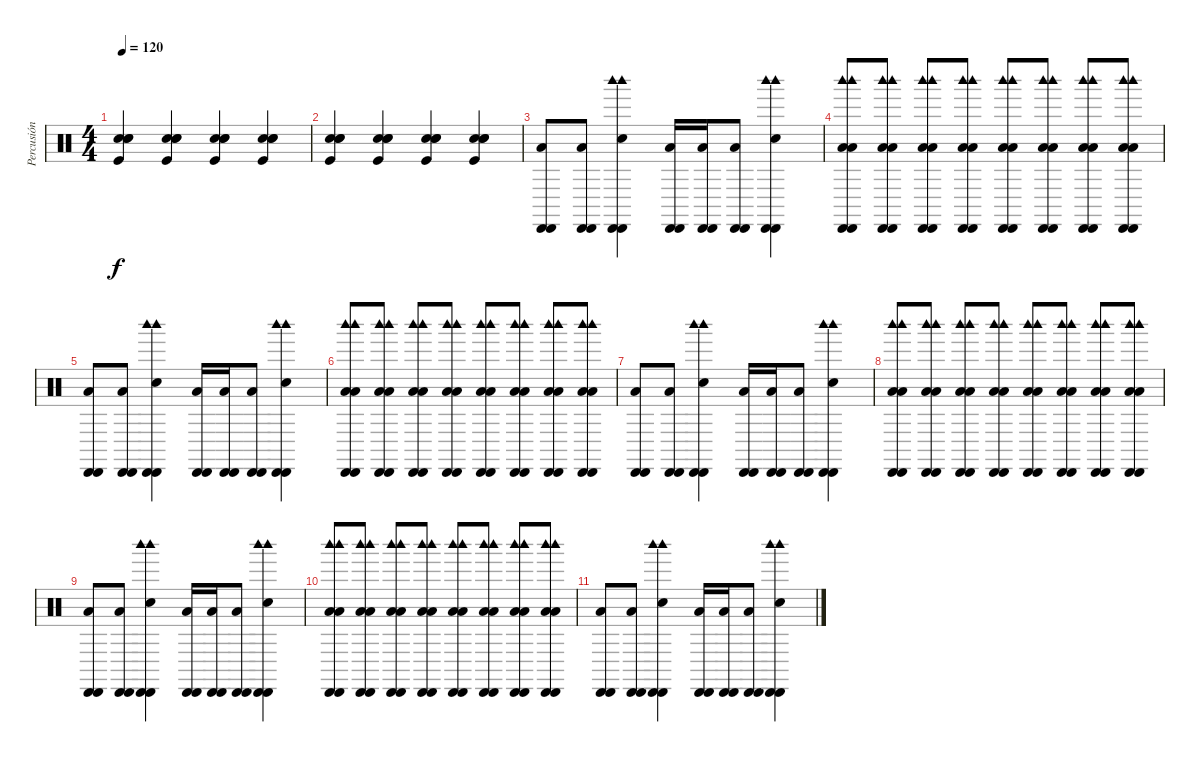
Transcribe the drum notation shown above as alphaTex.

\track ("Percusión" "Percusión") {instrument percussion}
\staff {score}
\articulation defaults
\ts (4 4)
\tempo 120
\clef neutral
\ks c
("Snare (hit) 2" "Snare (hit) 2" "Snare (hit) 2" "Kick (hit)").4{dy f} ("Snare (hit) 2" "Snare (hit) 2" "Snare (hit) 2" "Kick (hit)").4 ("Snare (hit) 2" "Snare (hit) 2" "Snare (hit) 2" "Kick (hit)").4 ("Snare (hit) 2" "Snare (hit) 2" "Snare (hit) 2" "Kick (hit)").4 |
("Snare (hit) 2" "Snare (hit) 2" "Snare (hit) 2" "Kick (hit)").4 ("Snare (hit) 2" "Snare (hit) 2" "Snare (hit) 2" "Kick (hit)").4 ("Snare (hit) 2" "Snare (hit) 2" "Snare (hit) 2" "Kick (hit)").4 ("Snare (hit) 2" "Snare (hit) 2" "Snare (hit) 2" "Kick (hit)").4 |
("Cabasa (hit)" "Cabasa (hit)" "Low Tom (hit)").8 ("Cabasa (hit)" "Cabasa (hit)" "Low Tom (hit)").8 ("Cabasa (hit)" "Cabasa (hit)" "Woodblock high (hit)" "Woodblock high (hit)" "Snare (hit) 2").4 ("Cabasa (hit)" "Cabasa (hit)" "Low Tom (hit)").16 ("Cabasa (hit)" "Cabasa (hit)" "Low Tom (hit)").16 ("Cabasa (hit)" "Cabasa (hit)" "Low Tom (hit)").8 ("Cabasa (hit)" "Cabasa (hit)" "Woodblock high (hit)" "Woodblock high (hit)" "Snare (hit) 2").4 |
("Cabasa (hit)" "Cabasa (hit)" "Woodblock high (hit)" "Woodblock high (hit)" "Low Tom (hit)" "Low Tom (hit)").8 ("Cabasa (hit)" "Cabasa (hit)" "Woodblock high (hit)" "Woodblock high (hit)" "Low Tom (hit)" "Low Tom (hit)").8 ("Cabasa (hit)" "Cabasa (hit)" "Woodblock high (hit)" "Woodblock high (hit)" "Low Tom (hit)" "Low Tom (hit)").8 ("Cabasa (hit)" "Cabasa (hit)" "Woodblock high (hit)" "Woodblock high (hit)" "Low Tom (hit)" "Low Tom (hit)").8 ("Cabasa (hit)" "Cabasa (hit)" "Woodblock high (hit)" "Woodblock high (hit)" "Low Tom (hit)" "Low Tom (hit)").8 ("Cabasa (hit)" "Cabasa (hit)" "Woodblock high (hit)" "Woodblock high (hit)" "Low Tom (hit)" "Low Tom (hit)").8 ("Cabasa (hit)" "Cabasa (hit)" "Woodblock high (hit)" "Woodblock high (hit)" "Low Tom (hit)" "Low Tom (hit)").8 ("Cabasa (hit)" "Cabasa (hit)" "Woodblock high (hit)" "Woodblock high (hit)" "Low Tom (hit)" "Low Tom (hit)").8 |
("Cabasa (hit)" "Cabasa (hit)" "Low Tom (hit)").8 ("Cabasa (hit)" "Cabasa (hit)" "Low Tom (hit)").8 ("Cabasa (hit)" "Cabasa (hit)" "Woodblock high (hit)" "Woodblock high (hit)" "Snare (hit) 2").4 ("Cabasa (hit)" "Cabasa (hit)" "Low Tom (hit)").16 ("Cabasa (hit)" "Cabasa (hit)" "Low Tom (hit)").16 ("Cabasa (hit)" "Cabasa (hit)" "Low Tom (hit)").8 ("Cabasa (hit)" "Cabasa (hit)" "Woodblock high (hit)" "Woodblock high (hit)" "Snare (hit) 2").4 |
("Cabasa (hit)" "Cabasa (hit)" "Woodblock high (hit)" "Woodblock high (hit)" "Low Tom (hit)" "Low Tom (hit)").8 ("Cabasa (hit)" "Cabasa (hit)" "Woodblock high (hit)" "Woodblock high (hit)" "Low Tom (hit)" "Low Tom (hit)").8 ("Cabasa (hit)" "Cabasa (hit)" "Woodblock high (hit)" "Woodblock high (hit)" "Low Tom (hit)" "Low Tom (hit)").8 ("Cabasa (hit)" "Cabasa (hit)" "Woodblock high (hit)" "Woodblock high (hit)" "Low Tom (hit)" "Low Tom (hit)").8 ("Cabasa (hit)" "Cabasa (hit)" "Woodblock high (hit)" "Woodblock high (hit)" "Low Tom (hit)" "Low Tom (hit)").8 ("Cabasa (hit)" "Cabasa (hit)" "Woodblock high (hit)" "Woodblock high (hit)" "Low Tom (hit)" "Low Tom (hit)").8 ("Cabasa (hit)" "Cabasa (hit)" "Woodblock high (hit)" "Woodblock high (hit)" "Low Tom (hit)" "Low Tom (hit)").8 ("Cabasa (hit)" "Cabasa (hit)" "Woodblock high (hit)" "Woodblock high (hit)" "Low Tom (hit)" "Low Tom (hit)").8 |
("Cabasa (hit)" "Cabasa (hit)" "Low Tom (hit)").8 ("Cabasa (hit)" "Cabasa (hit)" "Low Tom (hit)").8 ("Cabasa (hit)" "Cabasa (hit)" "Woodblock high (hit)" "Woodblock high (hit)" "Snare (hit) 2").4 ("Cabasa (hit)" "Cabasa (hit)" "Low Tom (hit)").16 ("Cabasa (hit)" "Cabasa (hit)" "Low Tom (hit)").16 ("Cabasa (hit)" "Cabasa (hit)" "Low Tom (hit)").8 ("Cabasa (hit)" "Cabasa (hit)" "Woodblock high (hit)" "Woodblock high (hit)" "Snare (hit) 2").4 |
("Cabasa (hit)" "Cabasa (hit)" "Woodblock high (hit)" "Woodblock high (hit)" "Low Tom (hit)" "Low Tom (hit)").8 ("Cabasa (hit)" "Cabasa (hit)" "Woodblock high (hit)" "Woodblock high (hit)" "Low Tom (hit)" "Low Tom (hit)").8 ("Cabasa (hit)" "Cabasa (hit)" "Woodblock high (hit)" "Woodblock high (hit)" "Low Tom (hit)" "Low Tom (hit)").8 ("Cabasa (hit)" "Cabasa (hit)" "Woodblock high (hit)" "Woodblock high (hit)" "Low Tom (hit)" "Low Tom (hit)").8 ("Cabasa (hit)" "Cabasa (hit)" "Woodblock high (hit)" "Woodblock high (hit)" "Low Tom (hit)" "Low Tom (hit)").8 ("Cabasa (hit)" "Cabasa (hit)" "Woodblock high (hit)" "Woodblock high (hit)" "Low Tom (hit)" "Low Tom (hit)").8 ("Cabasa (hit)" "Cabasa (hit)" "Woodblock high (hit)" "Woodblock high (hit)" "Low Tom (hit)" "Low Tom (hit)").8 ("Cabasa (hit)" "Cabasa (hit)" "Woodblock high (hit)" "Woodblock high (hit)" "Low Tom (hit)" "Low Tom (hit)").8 |
("Cabasa (hit)" "Cabasa (hit)" "Low Tom (hit)").8 ("Cabasa (hit)" "Cabasa (hit)" "Low Tom (hit)").8 ("Cabasa (hit)" "Cabasa (hit)" "Woodblock high (hit)" "Woodblock high (hit)" "Snare (hit) 2").4 ("Cabasa (hit)" "Cabasa (hit)" "Low Tom (hit)").16 ("Cabasa (hit)" "Cabasa (hit)" "Low Tom (hit)").16 ("Cabasa (hit)" "Cabasa (hit)" "Low Tom (hit)").8 ("Cabasa (hit)" "Cabasa (hit)" "Woodblock high (hit)" "Woodblock high (hit)" "Snare (hit) 2").4 |
("Cabasa (hit)" "Cabasa (hit)" "Woodblock high (hit)" "Woodblock high (hit)" "Low Tom (hit)" "Low Tom (hit)").8 ("Cabasa (hit)" "Cabasa (hit)" "Woodblock high (hit)" "Woodblock high (hit)" "Low Tom (hit)" "Low Tom (hit)").8 ("Cabasa (hit)" "Cabasa (hit)" "Woodblock high (hit)" "Woodblock high (hit)" "Low Tom (hit)" "Low Tom (hit)").8 ("Cabasa (hit)" "Cabasa (hit)" "Woodblock high (hit)" "Woodblock high (hit)" "Low Tom (hit)" "Low Tom (hit)").8 ("Cabasa (hit)" "Cabasa (hit)" "Woodblock high (hit)" "Woodblock high (hit)" "Low Tom (hit)" "Low Tom (hit)").8 ("Cabasa (hit)" "Cabasa (hit)" "Woodblock high (hit)" "Woodblock high (hit)" "Low Tom (hit)" "Low Tom (hit)").8 ("Cabasa (hit)" "Cabasa (hit)" "Woodblock high (hit)" "Woodblock high (hit)" "Low Tom (hit)" "Low Tom (hit)").8 ("Cabasa (hit)" "Cabasa (hit)" "Woodblock high (hit)" "Woodblock high (hit)" "Low Tom (hit)" "Low Tom (hit)").8 |
("Cabasa (hit)" "Cabasa (hit)" "Low Tom (hit)").8 ("Cabasa (hit)" "Cabasa (hit)" "Low Tom (hit)").8 ("Cabasa (hit)" "Cabasa (hit)" "Woodblock high (hit)" "Woodblock high (hit)" "Snare (hit) 2").4 ("Cabasa (hit)" "Cabasa (hit)" "Low Tom (hit)").16 ("Cabasa (hit)" "Cabasa (hit)" "Low Tom (hit)").16 ("Cabasa (hit)" "Cabasa (hit)" "Low Tom (hit)").8 ("Cabasa (hit)" "Cabasa (hit)" "Woodblock high (hit)" "Woodblock high (hit)" "Snare (hit) 2").4
